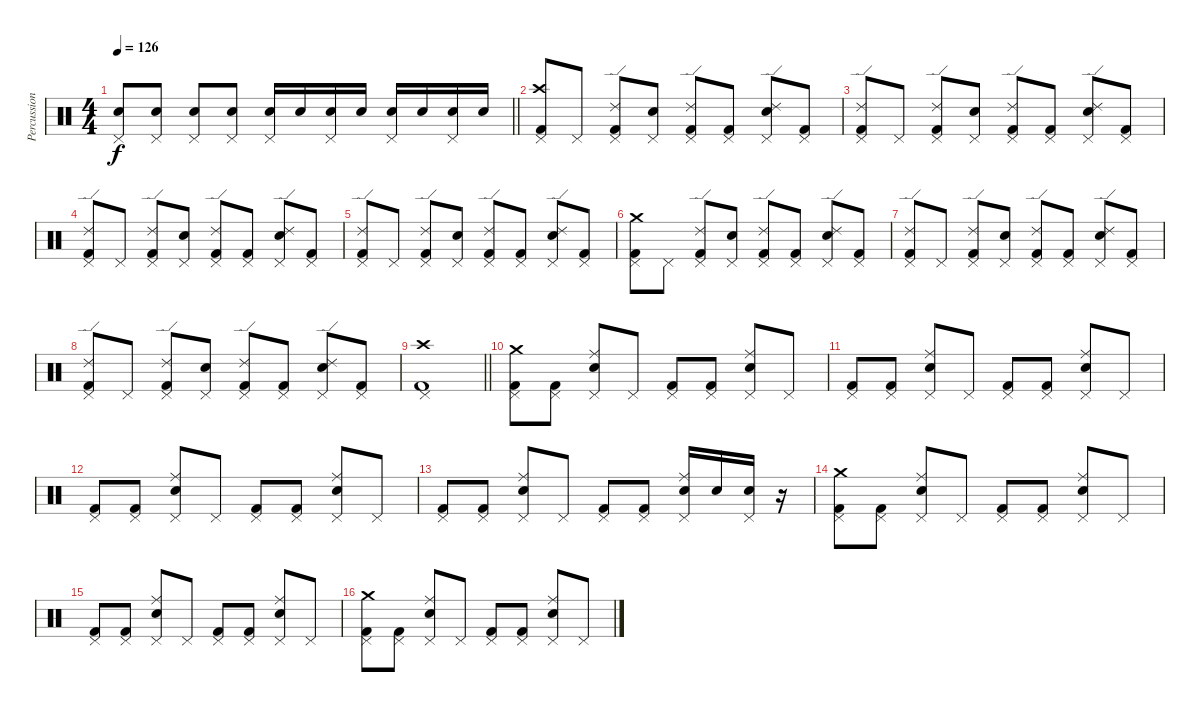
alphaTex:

\track ("Percussion" "Percussion") {instrument percussion}
\staff {score}
\articulation defaults
\ts (4 4)
\tempo 126
\clef neutral
\barLineRight lightlight
\ks c
("Pedal Hi-Hat (hit)" "Snare (hit) 2").8{dy f} ("Pedal Hi-Hat (hit)" "Snare (hit) 2").8 ("Pedal Hi-Hat (hit)" "Snare (hit) 2").8 ("Pedal Hi-Hat (hit)" "Snare (hit) 2").8 ("Pedal Hi-Hat (hit)" "Snare (hit) 2").16 "Snare (hit) 2".16 ("Pedal Hi-Hat (hit)" "Snare (hit) 2").16 "Snare (hit) 2".16 ("Pedal Hi-Hat (hit)" "Snare (hit) 2").16 "Snare (hit) 2".16 ("Pedal Hi-Hat (hit)" "Snare (hit) 2").16 "Snare (hit) 2".16 |
("Pedal Hi-Hat (hit)" "Crash high (hit)" "Kick (hit) 2").8 "Pedal Hi-Hat (hit)".8 ("Pedal Hi-Hat (hit)" "Ride (edge) 2" "Kick (hit) 2").8 ("Pedal Hi-Hat (hit)" "Snare (hit) 2").8 ("Pedal Hi-Hat (hit)" "Ride (edge) 2" "Kick (hit) 2").8 ("Pedal Hi-Hat (hit)" "Kick (hit) 2").8 ("Pedal Hi-Hat (hit)" "Ride (edge) 2" "Snare (hit) 2").8 ("Pedal Hi-Hat (hit)" "Kick (hit) 2").8 |
("Pedal Hi-Hat (hit)" "Ride (edge) 2" "Kick (hit) 2").8 "Pedal Hi-Hat (hit)".8 ("Pedal Hi-Hat (hit)" "Ride (edge) 2" "Kick (hit) 2").8 ("Pedal Hi-Hat (hit)" "Snare (hit) 2").8 ("Pedal Hi-Hat (hit)" "Ride (edge) 2" "Kick (hit) 2").8 ("Pedal Hi-Hat (hit)" "Kick (hit) 2").8 ("Pedal Hi-Hat (hit)" "Ride (edge) 2" "Snare (hit) 2").8 ("Pedal Hi-Hat (hit)" "Kick (hit) 2").8 |
("Pedal Hi-Hat (hit)" "Ride (edge) 2" "Kick (hit) 2").8 "Pedal Hi-Hat (hit)".8 ("Pedal Hi-Hat (hit)" "Ride (edge) 2" "Kick (hit) 2").8 ("Pedal Hi-Hat (hit)" "Snare (hit) 2").8 ("Pedal Hi-Hat (hit)" "Ride (edge) 2" "Kick (hit) 2").8 ("Pedal Hi-Hat (hit)" "Kick (hit) 2").8 ("Pedal Hi-Hat (hit)" "Ride (edge) 2" "Snare (hit) 2").8 ("Pedal Hi-Hat (hit)" "Kick (hit) 2").8 |
("Pedal Hi-Hat (hit)" "Ride (edge) 2" "Kick (hit) 2").8 "Pedal Hi-Hat (hit)".8 ("Pedal Hi-Hat (hit)" "Ride (edge) 2" "Kick (hit) 2").8 ("Pedal Hi-Hat (hit)" "Snare (hit) 2").8 ("Pedal Hi-Hat (hit)" "Ride (edge) 2" "Kick (hit) 2").8 ("Pedal Hi-Hat (hit)" "Kick (hit) 2").8 ("Pedal Hi-Hat (hit)" "Ride (edge) 2" "Snare (hit) 2").8 ("Pedal Hi-Hat (hit)" "Kick (hit) 2").8 |
("Pedal Hi-Hat (hit)" "Crash medium (hit)" "Kick (hit) 2").8 "Pedal Hi-Hat (hit)".8 ("Pedal Hi-Hat (hit)" "Ride (edge) 2" "Kick (hit) 2").8 ("Pedal Hi-Hat (hit)" "Snare (hit) 2").8 ("Pedal Hi-Hat (hit)" "Ride (edge) 2" "Kick (hit) 2").8 ("Pedal Hi-Hat (hit)" "Kick (hit) 2").8 ("Pedal Hi-Hat (hit)" "Ride (edge) 2" "Snare (hit) 2").8 ("Pedal Hi-Hat (hit)" "Kick (hit) 2").8 |
("Pedal Hi-Hat (hit)" "Ride (edge) 2" "Kick (hit) 2").8 "Pedal Hi-Hat (hit)".8 ("Pedal Hi-Hat (hit)" "Ride (edge) 2" "Kick (hit) 2").8 ("Pedal Hi-Hat (hit)" "Snare (hit) 2").8 ("Pedal Hi-Hat (hit)" "Ride (edge) 2" "Kick (hit) 2").8 ("Pedal Hi-Hat (hit)" "Kick (hit) 2").8 ("Pedal Hi-Hat (hit)" "Ride (edge) 2" "Snare (hit) 2").8 ("Pedal Hi-Hat (hit)" "Kick (hit) 2").8 |
("Pedal Hi-Hat (hit)" "Ride (edge) 2" "Kick (hit) 2").8 "Pedal Hi-Hat (hit)".8 ("Pedal Hi-Hat (hit)" "Ride (edge) 2" "Kick (hit) 2").8 ("Pedal Hi-Hat (hit)" "Snare (hit) 2").8 ("Pedal Hi-Hat (hit)" "Ride (edge) 2" "Kick (hit) 2").8 ("Pedal Hi-Hat (hit)" "Kick (hit) 2").8 ("Pedal Hi-Hat (hit)" "Ride (edge) 2" "Snare (hit) 2").8 ("Pedal Hi-Hat (hit)" "Kick (hit) 2").8 |
\barLineRight lightlight
("Pedal Hi-Hat (hit)" "Crash high (hit)" "Kick (hit) 2").1 |
("Pedal Hi-Hat (hit)" "Crash medium (hit)" "Kick (hit) 2").8 ("Pedal Hi-Hat (hit)" "Kick (hit) 2").8 ("Pedal Hi-Hat (hit)" "Ride (middle)" "Snare (hit) 2").8 "Pedal Hi-Hat (hit)".8 ("Pedal Hi-Hat (hit)" "Kick (hit) 2").8 ("Pedal Hi-Hat (hit)" "Kick (hit) 2").8 ("Pedal Hi-Hat (hit)" "Ride (middle)" "Snare (hit) 2").8 "Pedal Hi-Hat (hit)".8 |
("Pedal Hi-Hat (hit)" "Kick (hit) 2").8 ("Pedal Hi-Hat (hit)" "Kick (hit) 2").8 ("Pedal Hi-Hat (hit)" "Ride (middle)" "Snare (hit) 2").8 "Pedal Hi-Hat (hit)".8 ("Pedal Hi-Hat (hit)" "Kick (hit) 2").8 ("Pedal Hi-Hat (hit)" "Kick (hit) 2").8 ("Pedal Hi-Hat (hit)" "Ride (middle)" "Snare (hit) 2").8 "Pedal Hi-Hat (hit)".8 |
("Pedal Hi-Hat (hit)" "Kick (hit) 2").8 ("Pedal Hi-Hat (hit)" "Kick (hit) 2").8 ("Pedal Hi-Hat (hit)" "Ride (middle)" "Snare (hit) 2").8 "Pedal Hi-Hat (hit)".8 ("Pedal Hi-Hat (hit)" "Kick (hit) 2").8 ("Pedal Hi-Hat (hit)" "Kick (hit) 2").8 ("Pedal Hi-Hat (hit)" "Ride (middle)" "Snare (hit) 2").8 "Pedal Hi-Hat (hit)".8 |
("Pedal Hi-Hat (hit)" "Kick (hit) 2").8 ("Pedal Hi-Hat (hit)" "Kick (hit) 2").8 ("Pedal Hi-Hat (hit)" "Ride (middle)" "Snare (hit) 2").8 "Pedal Hi-Hat (hit)".8 ("Pedal Hi-Hat (hit)" "Kick (hit) 2").8 ("Pedal Hi-Hat (hit)" "Kick (hit) 2").8 ("Pedal Hi-Hat (hit)" "Ride (middle)" "Snare (hit) 2").16 "Snare (hit) 2".16 ("Pedal Hi-Hat (hit)" "Snare (hit) 2").16 r.16 |
("Pedal Hi-Hat (hit)" "Crash medium (hit)" "Kick (hit) 2").8 ("Pedal Hi-Hat (hit)" "Kick (hit) 2").8 ("Pedal Hi-Hat (hit)" "Ride (middle)" "Snare (hit) 2").8 "Pedal Hi-Hat (hit)".8 ("Pedal Hi-Hat (hit)" "Kick (hit) 2").8 ("Pedal Hi-Hat (hit)" "Kick (hit) 2").8 ("Pedal Hi-Hat (hit)" "Ride (middle)" "Snare (hit) 2").8 "Pedal Hi-Hat (hit)".8 |
("Pedal Hi-Hat (hit)" "Kick (hit) 2").8 ("Pedal Hi-Hat (hit)" "Kick (hit) 2").8 ("Pedal Hi-Hat (hit)" "Ride (middle)" "Snare (hit) 2").8 "Pedal Hi-Hat (hit)".8 ("Pedal Hi-Hat (hit)" "Kick (hit) 2").8 ("Pedal Hi-Hat (hit)" "Kick (hit) 2").8 ("Pedal Hi-Hat (hit)" "Ride (middle)" "Snare (hit) 2").8 "Pedal Hi-Hat (hit)".8 |
("Pedal Hi-Hat (hit)" "Crash medium (hit)" "Kick (hit) 2").8 ("Pedal Hi-Hat (hit)" "Kick (hit) 2").8 ("Pedal Hi-Hat (hit)" "Ride (middle)" "Snare (hit) 2").8 "Pedal Hi-Hat (hit)".8 ("Pedal Hi-Hat (hit)" "Kick (hit) 2").8 ("Pedal Hi-Hat (hit)" "Kick (hit) 2").8 ("Pedal Hi-Hat (hit)" "Ride (middle)" "Snare (hit) 2").8 "Pedal Hi-Hat (hit)".8
